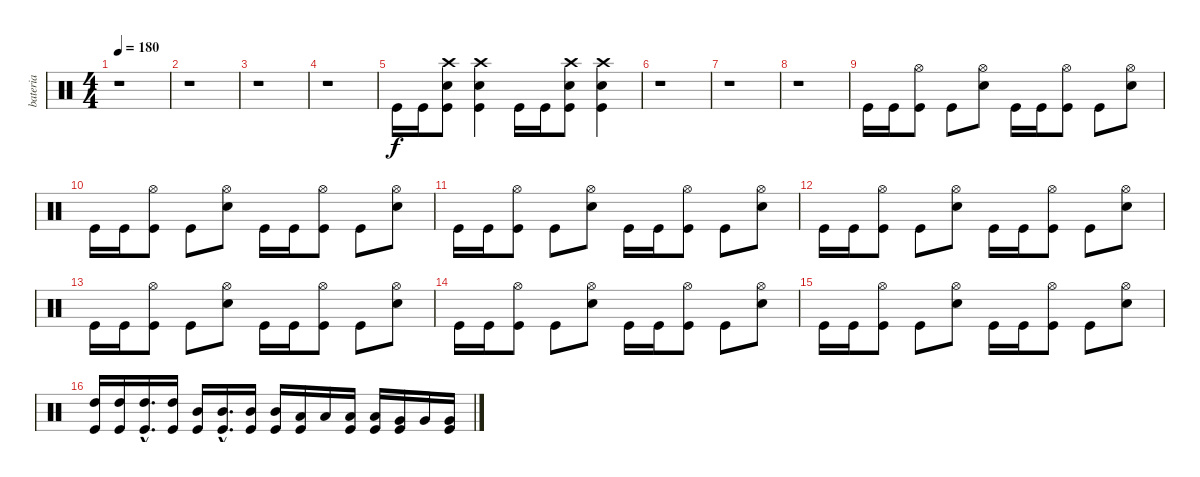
\track ("bateria" "bateria") {instrument percussion}
\staff {score}
\articulation defaults
\ts (4 4)
\tempo 180
\clef neutral
\ks c
r.1{dy f} |
r.1 |
r.1 |
r.1 |
"Kick (hit)".16 "Kick (hit)".16 ("Kick (hit)" "Snare (hit) 2" "Crash high (hit)").8 ("Kick (hit)" "Snare (hit) 2" "Crash high (hit)").4 "Kick (hit)".16 "Kick (hit)".16 ("Kick (hit)" "Snare (hit) 2" "Crash high (hit)").8 ("Kick (hit)" "Snare (hit) 2" "Crash high (hit)").4 |
r.1 |
r.1 |
r.1 |
"Kick (hit)".16 "Kick (hit)".16 ("Kick (hit)" "Hi-Hat (open)").8 "Kick (hit)".8 ("Snare (hit) 2" "Hi-Hat (open)").8 "Kick (hit)".16 "Kick (hit)".16 ("Kick (hit)" "Hi-Hat (open)").8 "Kick (hit)".8 ("Snare (hit) 2" "Hi-Hat (open)").8 |
"Kick (hit)".16 "Kick (hit)".16 ("Kick (hit)" "Hi-Hat (open)").8 "Kick (hit)".8 ("Snare (hit) 2" "Hi-Hat (open)").8 "Kick (hit)".16 "Kick (hit)".16 ("Kick (hit)" "Hi-Hat (open)").8 "Kick (hit)".8 ("Snare (hit) 2" "Hi-Hat (open)").8 |
"Kick (hit)".16 "Kick (hit)".16 ("Kick (hit)" "Hi-Hat (open)").8 "Kick (hit)".8 ("Snare (hit) 2" "Hi-Hat (open)").8 "Kick (hit)".16 "Kick (hit)".16 ("Kick (hit)" "Hi-Hat (open)").8 "Kick (hit)".8 ("Snare (hit) 2" "Hi-Hat (open)").8 |
"Kick (hit)".16 "Kick (hit)".16 ("Kick (hit)" "Hi-Hat (open)").8 "Kick (hit)".8 ("Snare (hit) 2" "Hi-Hat (open)").8 "Kick (hit)".16 "Kick (hit)".16 ("Kick (hit)" "Hi-Hat (open)").8 "Kick (hit)".8 ("Snare (hit) 2" "Hi-Hat (open)").8 |
"Kick (hit)".16 "Kick (hit)".16 ("Kick (hit)" "Hi-Hat (open)").8 "Kick (hit)".8 ("Snare (hit) 2" "Hi-Hat (open)").8 "Kick (hit)".16 "Kick (hit)".16 ("Kick (hit)" "Hi-Hat (open)").8 "Kick (hit)".8 ("Snare (hit) 2" "Hi-Hat (open)").8 |
"Kick (hit)".16 "Kick (hit)".16 ("Kick (hit)" "Hi-Hat (open)").8 "Kick (hit)".8 ("Snare (hit) 2" "Hi-Hat (open)").8 "Kick (hit)".16 "Kick (hit)".16 ("Kick (hit)" "Hi-Hat (open)").8 "Kick (hit)".8 ("Snare (hit) 2" "Hi-Hat (open)").8 |
"Kick (hit)".16 "Kick (hit)".16 ("Kick (hit)" "Hi-Hat (open)").8 "Kick (hit)".8 ("Snare (hit) 2" "Hi-Hat (open)").8 "Kick (hit)".16 "Kick (hit)".16 ("Kick (hit)" "Hi-Hat (open)").8 "Kick (hit)".8 ("Snare (hit) 2" "Hi-Hat (open)").8 |
("Kick (hit)" "High Tom (hit)").16 ("Kick (hit)" "High Tom (hit)").16 ("Kick (hit)"{hac} "High Tom (hit)"{hac}).16{d} ("Kick (hit)" "High Tom (hit)").16 ("Kick (hit)" "Mid Tom (hit)").16 ("Kick (hit)"{hac} "Mid Tom (hit)"{hac}).16{d} ("Kick (hit)" "Mid Tom (hit)").16 ("Kick (hit)" "Mid Tom (hit)").16 ("Kick (hit)" "Low Tom (hit)").16 "Low Tom (hit)".16 ("Kick (hit)" "Low Tom (hit)").16 ("Kick (hit)" "Low Tom (hit)").16 ("Kick (hit)" "Very Low Tom (hit)").16 "Very Low Tom (hit)".16 ("Kick (hit)" "Very Low Tom (hit)").16
